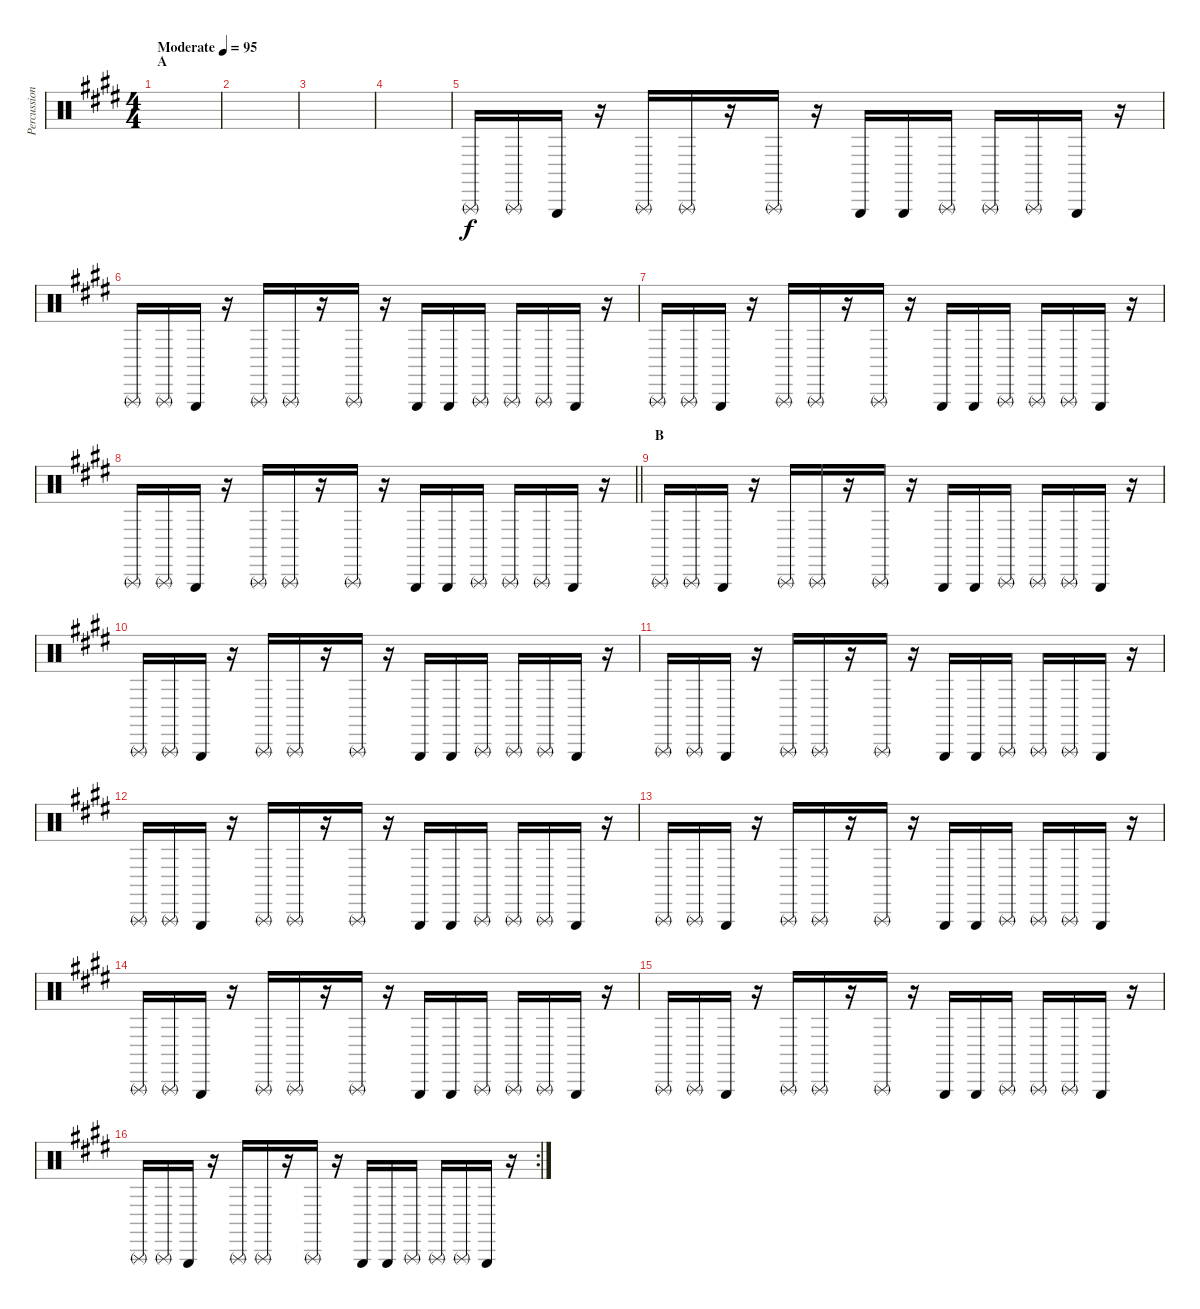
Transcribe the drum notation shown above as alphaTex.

\track ("Percussion" "Percussion") {instrument percussion}
\staff {score}
\articulation defaults
\ts (4 4)
\section ("" "A")
\tempo (95 "Moderate")
\clef neutral
\ks e
|
|
|
|
"Triangle (rnute)".16 "Triangle (rnute)".16 "Triangle (hit)".16 r.16 "Triangle (rnute)".16 "Triangle (rnute)".16 r.16 "Triangle (rnute)".16 r.16 "Triangle (hit)".16 "Triangle (hit)".16 "Triangle (rnute)".16 "Triangle (rnute)".16 "Triangle (rnute)".16 "Triangle (hit)".16 r.16 |
"Triangle (rnute)".16 "Triangle (rnute)".16 "Triangle (hit)".16 r.16 "Triangle (rnute)".16 "Triangle (rnute)".16 r.16 "Triangle (rnute)".16 r.16 "Triangle (hit)".16 "Triangle (hit)".16 "Triangle (rnute)".16 "Triangle (rnute)".16 "Triangle (rnute)".16 "Triangle (hit)".16 r.16 |
"Triangle (rnute)".16 "Triangle (rnute)".16 "Triangle (hit)".16 r.16 "Triangle (rnute)".16 "Triangle (rnute)".16 r.16 "Triangle (rnute)".16 r.16 "Triangle (hit)".16 "Triangle (hit)".16 "Triangle (rnute)".16 "Triangle (rnute)".16 "Triangle (rnute)".16 "Triangle (hit)".16 r.16 |
\barLineRight lightlight "Triangle (rnute)".16 "Triangle (rnute)".16 "Triangle (hit)".16
r.16 "Triangle (rnute)".16 "Triangle (rnute)".16 r.16 "Triangle (rnute)".16 r.16 "Triangle (hit)".16 "Triangle (hit)".16 "Triangle (rnute)".16 "Triangle (rnute)".16 "Triangle (rnute)".16 "Triangle (hit)".16 r.16 |
\section ("" "B")
"Triangle (rnute)".16 "Triangle (rnute)".16 "Triangle (hit)".16 r.16 "Triangle (rnute)".16 "Triangle (rnute)".16 r.16 "Triangle (rnute)".16 r.16 "Triangle (hit)".16 "Triangle (hit)".16 "Triangle (rnute)".16 "Triangle (rnute)".16 "Triangle (rnute)".16 "Triangle (hit)".16 r.16 |
"Triangle (rnute)".16 "Triangle (rnute)".16 "Triangle (hit)".16 r.16 "Triangle (rnute)".16 "Triangle (rnute)".16 r.16 "Triangle (rnute)".16 r.16 "Triangle (hit)".16 "Triangle (hit)".16 "Triangle (rnute)".16 "Triangle (rnute)".16 "Triangle (rnute)".16 "Triangle (hit)".16 r.16 |
"Triangle (rnute)".16 "Triangle (rnute)".16 "Triangle (hit)".16 r.16 "Triangle (rnute)".16 "Triangle (rnute)".16 r.16 "Triangle (rnute)".16 r.16 "Triangle (hit)".16 "Triangle (hit)".16 "Triangle (rnute)".16 "Triangle (rnute)".16 "Triangle (rnute)".16 "Triangle (hit)".16 r.16 |
"Triangle (rnute)".16 "Triangle (rnute)".16 "Triangle (hit)".16 r.16 "Triangle (rnute)".16 "Triangle (rnute)".16 r.16 "Triangle (rnute)".16 r.16 "Triangle (hit)".16 "Triangle (hit)".16 "Triangle (rnute)".16 "Triangle (rnute)".16 "Triangle (rnute)".16 "Triangle (hit)".16 r.16 |
"Triangle (rnute)".16 "Triangle (rnute)".16 "Triangle (hit)".16 r.16 "Triangle (rnute)".16 "Triangle (rnute)".16 r.16 "Triangle (rnute)".16 r.16 "Triangle (hit)".16 "Triangle (hit)".16 "Triangle (rnute)".16 "Triangle (rnute)".16 "Triangle (rnute)".16 "Triangle (hit)".16 r.16 |
"Triangle (rnute)".16 "Triangle (rnute)".16 "Triangle (hit)".16 r.16 "Triangle (rnute)".16 "Triangle (rnute)".16 r.16 "Triangle (rnute)".16 r.16 "Triangle (hit)".16 "Triangle (hit)".16 "Triangle (rnute)".16 "Triangle (rnute)".16 "Triangle (rnute)".16 "Triangle (hit)".16 r.16 |
"Triangle (rnute)".16 "Triangle (rnute)".16 "Triangle (hit)".16 r.16 "Triangle (rnute)".16 "Triangle (rnute)".16 r.16 "Triangle (rnute)".16 r.16 "Triangle (hit)".16 "Triangle (hit)".16 "Triangle (rnute)".16 "Triangle (rnute)".16 "Triangle (rnute)".16 "Triangle (hit)".16 r.16 |
\rc 2 "Triangle (rnute)".16 "Triangle (rnute)".16 "Triangle (hit)".16
r.16 "Triangle (rnute)".16 "Triangle (rnute)".16 r.16 "Triangle (rnute)".16 r.16 "Triangle (hit)".16 "Triangle (hit)".16 "Triangle (rnute)".16 "Triangle (rnute)".16 "Triangle (rnute)".16 "Triangle (hit)".16 r.16
